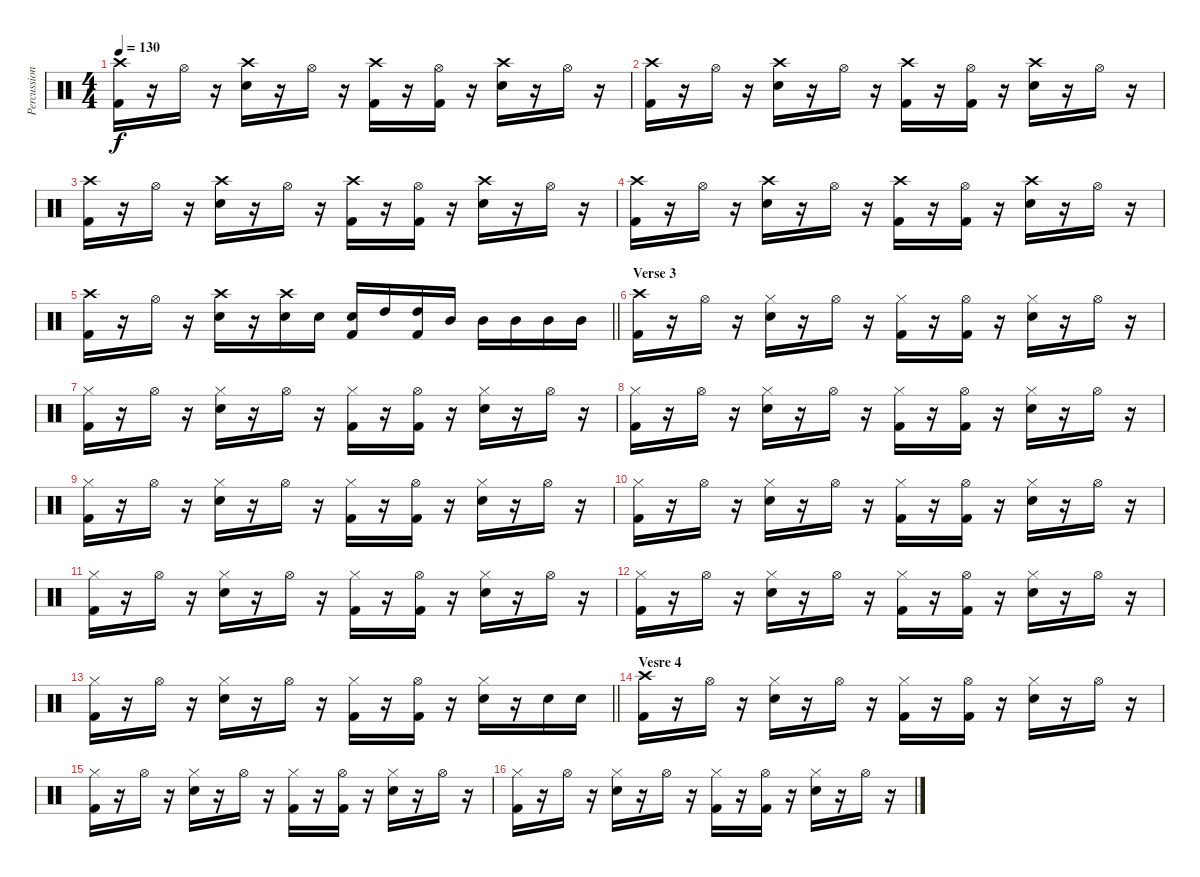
\track ("Percussion" "Percussion") {instrument percussion}
\staff {score}
\articulation defaults
\ts (4 4)
\tempo 130
\clef neutral
\ks c
("Crash high (hit)" "Kick (hit) 2").16{dy f} r.16 "Hi-Hat (open)".16 r.16 ("Crash high (hit)" "Snare (hit) 2").16 r.16 "Hi-Hat (open)".16 r.16 ("Crash high (hit)" "Kick (hit) 2").16 r.16 ("Hi-Hat (open)" "Kick (hit) 2").16 r.16 ("Crash high (hit)" "Snare (hit) 2").16 r.16 "Hi-Hat (open)".16 r.16 |
("Crash high (hit)" "Kick (hit) 2").16 r.16 "Hi-Hat (open)".16 r.16 ("Crash high (hit)" "Snare (hit) 2").16 r.16 "Hi-Hat (open)".16 r.16 ("Crash high (hit)" "Kick (hit) 2").16 r.16 ("Hi-Hat (open)" "Kick (hit) 2").16 r.16 ("Crash high (hit)" "Snare (hit) 2").16 r.16 "Hi-Hat (open)".16 r.16 |
("Crash high (hit)" "Kick (hit) 2").16 r.16 "Hi-Hat (open)".16 r.16 ("Crash high (hit)" "Snare (hit) 2").16 r.16 "Hi-Hat (open)".16 r.16 ("Crash high (hit)" "Kick (hit) 2").16 r.16 ("Hi-Hat (open)" "Kick (hit) 2").16 r.16 ("Crash high (hit)" "Snare (hit) 2").16 r.16 "Hi-Hat (open)".16 r.16 |
("Crash high (hit)" "Kick (hit) 2").16 r.16 "Hi-Hat (open)".16 r.16 ("Crash high (hit)" "Snare (hit) 2").16 r.16 "Hi-Hat (open)".16 r.16 ("Crash high (hit)" "Kick (hit) 2").16 r.16 ("Hi-Hat (open)" "Kick (hit) 2").16 r.16 ("Crash high (hit)" "Snare (hit) 2").16 r.16 "Hi-Hat (open)".16 r.16 |
\barLineRight lightlight
("Crash high (hit)" "Kick (hit) 2").16 r.16 "Hi-Hat (open)".16 r.16 ("Crash high (hit)" "Snare (hit) 2").16 r.16 ("Crash high (hit)" "Snare (hit) 2").16 "Snare (hit) 2".16 ("Snare (hit) 2" "Kick (hit) 2").16 "High Tom (hit)".16 ("High Tom (hit)" "Kick (hit) 2").16 "Mid Tom (hit)".16 "Mid Tom (hit)".16 "Mid Tom (hit)".16 "Mid Tom (hit)".16 "Mid Tom (hit)".16 |
\section ("" "Verse 3")
("Crash high (hit)" "Kick (hit) 2").16 r.16 "Hi-Hat (open)".16 r.16 ("Hi-Hat (closed)" "Snare (hit) 2").16 r.16 "Hi-Hat (open)".16 r.16 ("Hi-Hat (closed)" "Kick (hit) 2").16 r.16 ("Hi-Hat (open)" "Kick (hit) 2").16 r.16 ("Hi-Hat (closed)" "Snare (hit) 2").16 r.16 "Hi-Hat (open)".16 r.16 |
("Hi-Hat (closed)" "Kick (hit) 2").16 r.16 "Hi-Hat (open)".16 r.16 ("Hi-Hat (closed)" "Snare (hit) 2").16 r.16 "Hi-Hat (open)".16 r.16 ("Hi-Hat (closed)" "Kick (hit) 2").16 r.16 ("Hi-Hat (open)" "Kick (hit) 2").16 r.16 ("Hi-Hat (closed)" "Snare (hit) 2").16 r.16 "Hi-Hat (open)".16 r.16 |
("Hi-Hat (closed)" "Kick (hit) 2").16 r.16 "Hi-Hat (open)".16 r.16 ("Hi-Hat (closed)" "Snare (hit) 2").16 r.16 "Hi-Hat (open)".16 r.16 ("Hi-Hat (closed)" "Kick (hit) 2").16 r.16 ("Hi-Hat (open)" "Kick (hit) 2").16 r.16 ("Hi-Hat (closed)" "Snare (hit) 2").16 r.16 "Hi-Hat (open)".16 r.16 |
("Hi-Hat (closed)" "Kick (hit) 2").16 r.16 "Hi-Hat (open)".16 r.16 ("Hi-Hat (closed)" "Snare (hit) 2").16 r.16 "Hi-Hat (open)".16 r.16 ("Hi-Hat (closed)" "Kick (hit) 2").16 r.16 ("Hi-Hat (open)" "Kick (hit) 2").16 r.16 ("Hi-Hat (closed)" "Snare (hit) 2").16 r.16 "Hi-Hat (open)".16 r.16 |
("Hi-Hat (closed)" "Kick (hit) 2").16 r.16 "Hi-Hat (open)".16 r.16 ("Hi-Hat (closed)" "Snare (hit) 2").16 r.16 "Hi-Hat (open)".16 r.16 ("Hi-Hat (closed)" "Kick (hit) 2").16 r.16 ("Hi-Hat (open)" "Kick (hit) 2").16 r.16 ("Hi-Hat (closed)" "Snare (hit) 2").16 r.16 "Hi-Hat (open)".16 r.16 |
("Hi-Hat (closed)" "Kick (hit) 2").16 r.16 "Hi-Hat (open)".16 r.16 ("Hi-Hat (closed)" "Snare (hit) 2").16 r.16 "Hi-Hat (open)".16 r.16 ("Hi-Hat (closed)" "Kick (hit) 2").16 r.16 ("Hi-Hat (open)" "Kick (hit) 2").16 r.16 ("Hi-Hat (closed)" "Snare (hit) 2").16 r.16 "Hi-Hat (open)".16 r.16 |
("Hi-Hat (closed)" "Kick (hit) 2").16 r.16 "Hi-Hat (open)".16 r.16 ("Hi-Hat (closed)" "Snare (hit) 2").16 r.16 "Hi-Hat (open)".16 r.16 ("Hi-Hat (closed)" "Kick (hit) 2").16 r.16 ("Hi-Hat (open)" "Kick (hit) 2").16 r.16 ("Hi-Hat (closed)" "Snare (hit) 2").16 r.16 "Hi-Hat (open)".16 r.16 |
\barLineRight lightlight
("Hi-Hat (closed)" "Kick (hit) 2").16 r.16 "Hi-Hat (open)".16 r.16 ("Hi-Hat (closed)" "Snare (hit) 2").16 r.16 "Hi-Hat (open)".16 r.16 ("Hi-Hat (closed)" "Kick (hit) 2").16 r.16 ("Hi-Hat (open)" "Kick (hit) 2").16 r.16 ("Hi-Hat (closed)" "Snare (hit) 2").16 r.16 "Snare (hit) 2".16 "Snare (hit) 2".16 |
\section ("" "Vesre 4")
("Crash high (hit)" "Kick (hit) 2").16 r.16 "Hi-Hat (open)".16 r.16 ("Hi-Hat (closed)" "Snare (hit) 2").16 r.16 "Hi-Hat (open)".16 r.16 ("Hi-Hat (closed)" "Kick (hit) 2").16 r.16 ("Hi-Hat (open)" "Kick (hit) 2").16 r.16 ("Hi-Hat (closed)" "Snare (hit) 2").16 r.16 "Hi-Hat (open)".16 r.16 |
("Hi-Hat (closed)" "Kick (hit) 2").16 r.16 "Hi-Hat (open)".16 r.16 ("Hi-Hat (closed)" "Snare (hit) 2").16 r.16 "Hi-Hat (open)".16 r.16 ("Hi-Hat (closed)" "Kick (hit) 2").16 r.16 ("Hi-Hat (open)" "Kick (hit) 2").16 r.16 ("Hi-Hat (closed)" "Snare (hit) 2").16 r.16 "Hi-Hat (open)".16 r.16 |
("Hi-Hat (closed)" "Kick (hit) 2").16 r.16 "Hi-Hat (open)".16 r.16 ("Hi-Hat (closed)" "Snare (hit) 2").16 r.16 "Hi-Hat (open)".16 r.16 ("Hi-Hat (closed)" "Kick (hit) 2").16 r.16 ("Hi-Hat (open)" "Kick (hit) 2").16 r.16 ("Hi-Hat (closed)" "Snare (hit) 2").16 r.16 "Hi-Hat (open)".16 r.16
